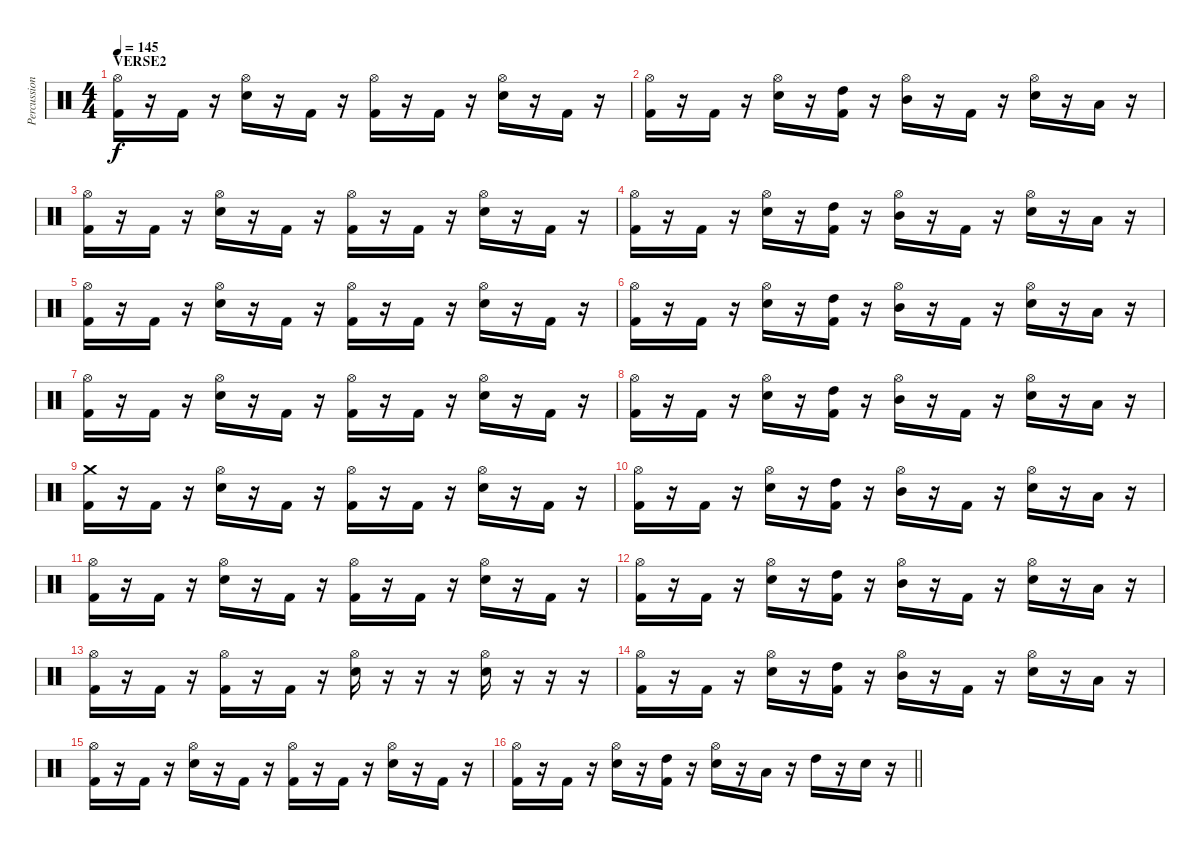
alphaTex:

\track ("Percussion" "Percussion") {instrument percussion}
\staff {score}
\articulation defaults
\ts (4 4)
\section ("" "VERSE2")
\tempo 145
\clef neutral
\ks c
("Kick (hit) 2" "Hi-Hat (open)").16{dy f} r.16 "Kick (hit) 2".16 r.16 ("Snare (hit) 2" "Hi-Hat (open)").16 r.16 "Kick (hit) 2".16 r.16 ("Kick (hit) 2" "Hi-Hat (open)").16 r.16 "Kick (hit) 2".16 r.16 ("Snare (hit) 2" "Hi-Hat (open)").16 r.16 "Kick (hit) 2".16 r.16 |
("Kick (hit) 2" "Hi-Hat (open)").16 r.16 "Kick (hit) 2".16 r.16 ("Snare (hit) 2" "Hi-Hat (open)").16 r.16 ("High Tom (hit)" "Kick (hit) 2").16 r.16 ("Mid Tom (hit)" "Hi-Hat (open)").16 r.16 "Kick (hit) 2".16 r.16 ("Snare (hit) 2" "Hi-Hat (open)").16 r.16 "Low Floor Tom (hit)".16 r.16 |
("Kick (hit) 2" "Hi-Hat (open)").16 r.16 "Kick (hit) 2".16 r.16 ("Snare (hit) 2" "Hi-Hat (open)").16 r.16 "Kick (hit) 2".16 r.16 ("Kick (hit) 2" "Hi-Hat (open)").16 r.16 "Kick (hit) 2".16 r.16 ("Snare (hit) 2" "Hi-Hat (open)").16 r.16 "Kick (hit) 2".16 r.16 |
("Kick (hit) 2" "Hi-Hat (open)").16 r.16 "Kick (hit) 2".16 r.16 ("Snare (hit) 2" "Hi-Hat (open)").16 r.16 ("High Tom (hit)" "Kick (hit) 2").16 r.16 ("Mid Tom (hit)" "Hi-Hat (open)").16 r.16 "Kick (hit) 2".16 r.16 ("Snare (hit) 2" "Hi-Hat (open)").16 r.16 "Low Floor Tom (hit)".16 r.16 |
("Kick (hit) 2" "Hi-Hat (open)").16 r.16 "Kick (hit) 2".16 r.16 ("Snare (hit) 2" "Hi-Hat (open)").16 r.16 "Kick (hit) 2".16 r.16 ("Kick (hit) 2" "Hi-Hat (open)").16 r.16 "Kick (hit) 2".16 r.16 ("Snare (hit) 2" "Hi-Hat (open)").16 r.16 "Kick (hit) 2".16 r.16 |
("Kick (hit) 2" "Hi-Hat (open)").16 r.16 "Kick (hit) 2".16 r.16 ("Snare (hit) 2" "Hi-Hat (open)").16 r.16 ("High Tom (hit)" "Kick (hit) 2").16 r.16 ("Mid Tom (hit)" "Hi-Hat (open)").16 r.16 "Kick (hit) 2".16 r.16 ("Snare (hit) 2" "Hi-Hat (open)").16 r.16 "Low Floor Tom (hit)".16 r.16 |
("Kick (hit) 2" "Hi-Hat (open)").16 r.16 "Kick (hit) 2".16 r.16 ("Snare (hit) 2" "Hi-Hat (open)").16 r.16 "Kick (hit) 2".16 r.16 ("Kick (hit) 2" "Hi-Hat (open)").16 r.16 "Kick (hit) 2".16 r.16 ("Snare (hit) 2" "Hi-Hat (open)").16 r.16 "Kick (hit) 2".16 r.16 |
("Kick (hit) 2" "Hi-Hat (open)").16 r.16 "Kick (hit) 2".16 r.16 ("Snare (hit) 2" "Hi-Hat (open)").16 r.16 ("High Tom (hit)" "Kick (hit) 2").16 r.16 ("Mid Tom (hit)" "Hi-Hat (open)").16 r.16 "Kick (hit) 2".16 r.16 ("Snare (hit) 2" "Hi-Hat (open)").16 r.16 "Low Floor Tom (hit)".16 r.16 |
("Kick (hit) 2" "Crash medium (hit)").16 r.16 "Kick (hit) 2".16 r.16 ("Snare (hit) 2" "Hi-Hat (open)").16 r.16 "Kick (hit) 2".16 r.16 ("Kick (hit) 2" "Hi-Hat (open)").16 r.16 "Kick (hit) 2".16 r.16 ("Snare (hit) 2" "Hi-Hat (open)").16 r.16 "Kick (hit) 2".16 r.16 |
("Kick (hit) 2" "Hi-Hat (open)").16 r.16 "Kick (hit) 2".16 r.16 ("Snare (hit) 2" "Hi-Hat (open)").16 r.16 ("High Tom (hit)" "Kick (hit) 2").16 r.16 ("Mid Tom (hit)" "Hi-Hat (open)").16 r.16 "Kick (hit) 2".16 r.16 ("Snare (hit) 2" "Hi-Hat (open)").16 r.16 "Low Floor Tom (hit)".16 r.16 |
("Kick (hit) 2" "Hi-Hat (open)").16 r.16 "Kick (hit) 2".16 r.16 ("Snare (hit) 2" "Hi-Hat (open)").16 r.16 "Kick (hit) 2".16 r.16 ("Kick (hit) 2" "Hi-Hat (open)").16 r.16 "Kick (hit) 2".16 r.16 ("Snare (hit) 2" "Hi-Hat (open)").16 r.16 "Kick (hit) 2".16 r.16 |
("Kick (hit) 2" "Hi-Hat (open)").16 r.16 "Kick (hit) 2".16 r.16 ("Snare (hit) 2" "Hi-Hat (open)").16 r.16 ("High Tom (hit)" "Kick (hit) 2").16 r.16 ("Mid Tom (hit)" "Hi-Hat (open)").16 r.16 "Kick (hit) 2".16 r.16 ("Snare (hit) 2" "Hi-Hat (open)").16 r.16 "Low Floor Tom (hit)".16 r.16 |
("Kick (hit) 2" "Hi-Hat (open)").16 r.16 "Kick (hit) 2".16 r.16 ("Kick (hit) 2" "Hi-Hat (open)").16 r.16 "Kick (hit) 2".16 r.16 ("Snare (hit) 2" "Hi-Hat (open)").16 r.16 r.16 r.16 ("Snare (hit) 2" "Hi-Hat (open)").16 r.16 r.16 r.16 |
("Kick (hit) 2" "Hi-Hat (open)").16 r.16 "Kick (hit) 2".16 r.16 ("Snare (hit) 2" "Hi-Hat (open)").16 r.16 ("High Tom (hit)" "Kick (hit) 2").16 r.16 ("Mid Tom (hit)" "Hi-Hat (open)").16 r.16 "Kick (hit) 2".16 r.16 ("Snare (hit) 2" "Hi-Hat (open)").16 r.16 "Low Floor Tom (hit)".16 r.16 |
("Kick (hit) 2" "Hi-Hat (open)").16 r.16 "Kick (hit) 2".16 r.16 ("Snare (hit) 2" "Hi-Hat (open)").16 r.16 "Kick (hit) 2".16 r.16 ("Kick (hit) 2" "Hi-Hat (open)").16 r.16 "Kick (hit) 2".16 r.16 ("Snare (hit) 2" "Hi-Hat (open)").16 r.16 "Kick (hit) 2".16 r.16 |
\barLineRight lightlight
("Kick (hit) 2" "Hi-Hat (open)").16 r.16 "Kick (hit) 2".16 r.16 ("Snare (hit) 2" "Hi-Hat (open)").16 r.16 ("High Tom (hit)" "Kick (hit) 2").16 r.16 ("Snare (hit) 2" "Hi-Hat (open)").16 r.16 "Low Tom (hit)".16 r.16 "High Tom (hit)".16 r.16 "Snare (hit) 2".16 r.16
